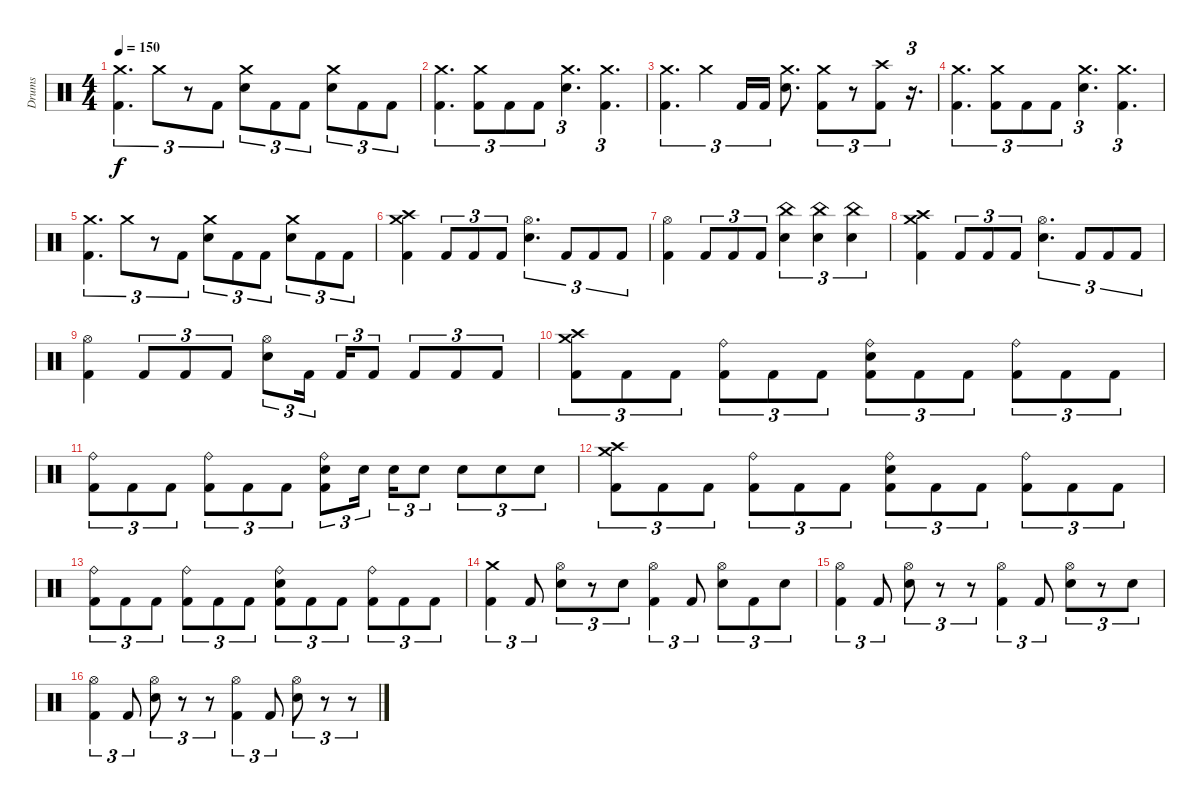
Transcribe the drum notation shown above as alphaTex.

\track ("Drums" "Drums") {instrument percussion}
\staff {score}
\articulation defaults
\ts (4 4)
\tempo 150
\clef neutral
\ks c
("Crash medium (hit)" "Kick (hit) 2").4{d tu (3 2) dy f} "Crash medium (hit)".8{tu (3 2)} r.8{tu (3 2)} "Kick (hit) 2".8{tu (3 2)} ("Crash medium (hit)" "Electric Snare (hit)").8{tu (3 2)} "Kick (hit) 2".8{tu (3 2)} "Kick (hit) 2".8{tu (3 2)} ("Crash medium (hit)" "Electric Snare (hit)").8{tu (3 2)} "Kick (hit) 2".8{tu (3 2)} "Kick (hit) 2".8{tu (3 2)} |
("Crash medium (hit)" "Kick (hit) 2").4{d tu (3 2)} ("Crash medium (hit)" "Kick (hit) 2").8{tu (3 2)} "Kick (hit) 2".8{tu (3 2)} "Kick (hit) 2".8{tu (3 2)} ("Crash medium (hit)" "Electric Snare (hit)").4{d tu (3 2)} ("Crash medium (hit)" "Kick (hit) 2").4{d tu (3 2)} |
("Crash medium (hit)" "Kick (hit) 2").4{d tu (3 2)} "Crash medium (hit)".4{tu (3 2)} "Kick (hit) 2".16{tu (3 2)} "Kick (hit) 2".16{tu (3 2)} ("Crash medium (hit)" "Electric Snare (hit)").8{d} ("Crash medium (hit)" "Kick (hit) 2").8{tu (3 2)} r.8{tu (3 2)} ("Crash high (hit)" "Kick (hit) 2").8{tu (3 2)} r.16{d tu (3 2)} |
("Crash medium (hit)" "Kick (hit) 2").4{d tu (3 2)} ("Crash medium (hit)" "Kick (hit) 2").8{tu (3 2)} "Kick (hit) 2".8{tu (3 2)} "Kick (hit) 2".8{tu (3 2)} ("Crash medium (hit)" "Electric Snare (hit)").4{d tu (3 2)} ("Crash medium (hit)" "Kick (hit) 2").4{d tu (3 2)} |
("Crash medium (hit)" "Kick (hit) 2").4{d tu (3 2)} "Crash medium (hit)".8{tu (3 2)} r.8{tu (3 2)} "Kick (hit) 2".8{tu (3 2)} ("Crash medium (hit)" "Electric Snare (hit)").8{tu (3 2)} "Kick (hit) 2".8{tu (3 2)} "Kick (hit) 2".8{tu (3 2)} ("Crash medium (hit)" "Electric Snare (hit)").8{tu (3 2)} "Kick (hit) 2".8{tu (3 2)} "Kick (hit) 2".8{tu (3 2)} |
("Crash high (hit)" "Crash medium (hit)" "Kick (hit) 2").4 "Kick (hit) 2".8{tu (3 2)} "Kick (hit) 2".8{tu (3 2)} "Kick (hit) 2".8{tu (3 2)} ("Hi-Hat (open)" "Electric Snare (hit)").4{d tu (3 2)} "Kick (hit) 2".8{tu (3 2)} "Kick (hit) 2".8{tu (3 2)} "Kick (hit) 2".8{tu (3 2)} |
("Hi-Hat (open)" "Kick (hit) 2").4 "Kick (hit) 2".8{tu (3 2)} "Kick (hit) 2".8{tu (3 2)} "Kick (hit) 2".8{tu (3 2)} ("China (hit)" "Electric Snare (hit)").4{tu (3 2)} ("China (hit)" "Electric Snare (hit)").4{tu (3 2)} ("China (hit)" "Electric Snare (hit)").4{tu (3 2)} |
("Crash high (hit)" "Crash medium (hit)" "Kick (hit) 2").4 "Kick (hit) 2".8{tu (3 2)} "Kick (hit) 2".8{tu (3 2)} "Kick (hit) 2".8{tu (3 2)} ("Hi-Hat (open)" "Electric Snare (hit)").4{d tu (3 2)} "Kick (hit) 2".8{tu (3 2)} "Kick (hit) 2".8{tu (3 2)} "Kick (hit) 2".8{tu (3 2)} |
("Hi-Hat (open)" "Kick (hit) 2").4 "Kick (hit) 2".8{tu (3 2)} "Kick (hit) 2".8{tu (3 2)} "Kick (hit) 2".8{tu (3 2)} ("Hi-Hat (open)" "Electric Snare (hit)").8{tu (3 2)} "Kick (hit) 2".16{tu (3 2) beam splitsecondary} "Kick (hit) 2".16{tu (3 2)} "Kick (hit) 2".8{tu (3 2)} "Kick (hit) 2".8{tu (3 2)} "Kick (hit) 2".8{tu (3 2)} "Kick (hit) 2".8{tu (3 2)} |
("Crash medium (hit)" "Crash high (hit)" "Kick (hit) 2").8{tu (3 2)} "Kick (hit) 2".8{tu (3 2)} "Kick (hit) 2".8{tu (3 2)} ("Ride (bell)" "Kick (hit) 2").8{tu (3 2)} "Kick (hit) 2".8{tu (3 2)} "Kick (hit) 2".8{tu (3 2)} ("Ride (bell)" "Electric Snare (hit)" "Kick (hit) 2").8{tu (3 2)} "Kick (hit) 2".8{tu (3 2)} "Kick (hit) 2".8{tu (3 2)} ("Ride (bell)" "Kick (hit) 2").8{tu (3 2)} "Kick (hit) 2".8{tu (3 2)} "Kick (hit) 2".8{tu (3 2)} |
("Ride (bell)" "Kick (hit) 2").8{tu (3 2)} "Kick (hit) 2".8{tu (3 2)} "Kick (hit) 2".8{tu (3 2)} ("Ride (bell)" "Kick (hit) 2").8{tu (3 2)} "Kick (hit) 2".8{tu (3 2)} "Kick (hit) 2".8{tu (3 2)} ("Ride (bell)" "Electric Snare (hit)" "Kick (hit) 2").8{tu (3 2)} "Electric Snare (hit)".16{tu (3 2) beam splitsecondary} "Electric Snare (hit)".16{tu (3 2)} "Electric Snare (hit)".8{tu (3 2)} "Electric Snare (hit)".8{tu (3 2)} "Electric Snare (hit)".8{tu (3 2)} "Electric Snare (hit)".8{tu (3 2)} |
("Crash medium (hit)" "Crash high (hit)" "Kick (hit) 2").8{tu (3 2)} "Kick (hit) 2".8{tu (3 2)} "Kick (hit) 2".8{tu (3 2)} ("Ride (bell)" "Kick (hit) 2").8{tu (3 2)} "Kick (hit) 2".8{tu (3 2)} "Kick (hit) 2".8{tu (3 2)} ("Ride (bell)" "Electric Snare (hit)" "Kick (hit) 2").8{tu (3 2)} "Kick (hit) 2".8{tu (3 2)} "Kick (hit) 2".8{tu (3 2)} ("Ride (bell)" "Kick (hit) 2").8{tu (3 2)} "Kick (hit) 2".8{tu (3 2)} "Kick (hit) 2".8{tu (3 2)} |
("Ride (bell)" "Kick (hit) 2").8{tu (3 2)} "Kick (hit) 2".8{tu (3 2)} "Kick (hit) 2".8{tu (3 2)} ("Ride (bell)" "Kick (hit) 2").8{tu (3 2)} "Kick (hit) 2".8{tu (3 2)} "Kick (hit) 2".8{tu (3 2)} ("Ride (bell)" "Electric Snare (hit)" "Kick (hit) 2").8{tu (3 2)} "Kick (hit) 2".8{tu (3 2)} "Kick (hit) 2".8{tu (3 2)} ("Ride (bell)" "Kick (hit) 2").8{tu (3 2)} "Kick (hit) 2".8{tu (3 2)} "Kick (hit) 2".8{tu (3 2)} |
("Crash medium (hit)" "Kick (hit) 2").4{tu (3 2)} "Kick (hit) 2".8{tu (3 2)} ("Hi-Hat (open)" "Electric Snare (hit)").8{tu (3 2)} r.8{tu (3 2)} "Electric Snare (hit)".8{tu (3 2)} ("Hi-Hat (open)" "Kick (hit) 2").4{tu (3 2)} "Kick (hit) 2".8{tu (3 2)} ("Hi-Hat (open)" "Electric Snare (hit)").8{tu (3 2)} "Kick (hit) 2".8{tu (3 2)} "Electric Snare (hit)".8{tu (3 2)} |
("Hi-Hat (open)" "Kick (hit) 2").4{tu (3 2)} "Kick (hit) 2".8{tu (3 2)} ("Hi-Hat (open)" "Electric Snare (hit)").8{tu (3 2)} r.8{tu (3 2)} r.8{tu (3 2)} ("Hi-Hat (open)" "Kick (hit) 2").4{tu (3 2)} "Kick (hit) 2".8{tu (3 2)} ("Hi-Hat (open)" "Electric Snare (hit)").8{tu (3 2)} r.8{tu (3 2)} "Electric Snare (hit)".8{tu (3 2)} |
("Hi-Hat (open)" "Kick (hit) 2").4{tu (3 2)} "Kick (hit) 2".8{tu (3 2)} ("Hi-Hat (open)" "Electric Snare (hit)").8{tu (3 2)} r.8{tu (3 2)} r.8{tu (3 2)} ("Hi-Hat (open)" "Kick (hit) 2").4{tu (3 2)} "Kick (hit) 2".8{tu (3 2)} ("Hi-Hat (open)" "Electric Snare (hit)").8{tu (3 2)} r.8{tu (3 2)} r.8{tu (3 2)}
